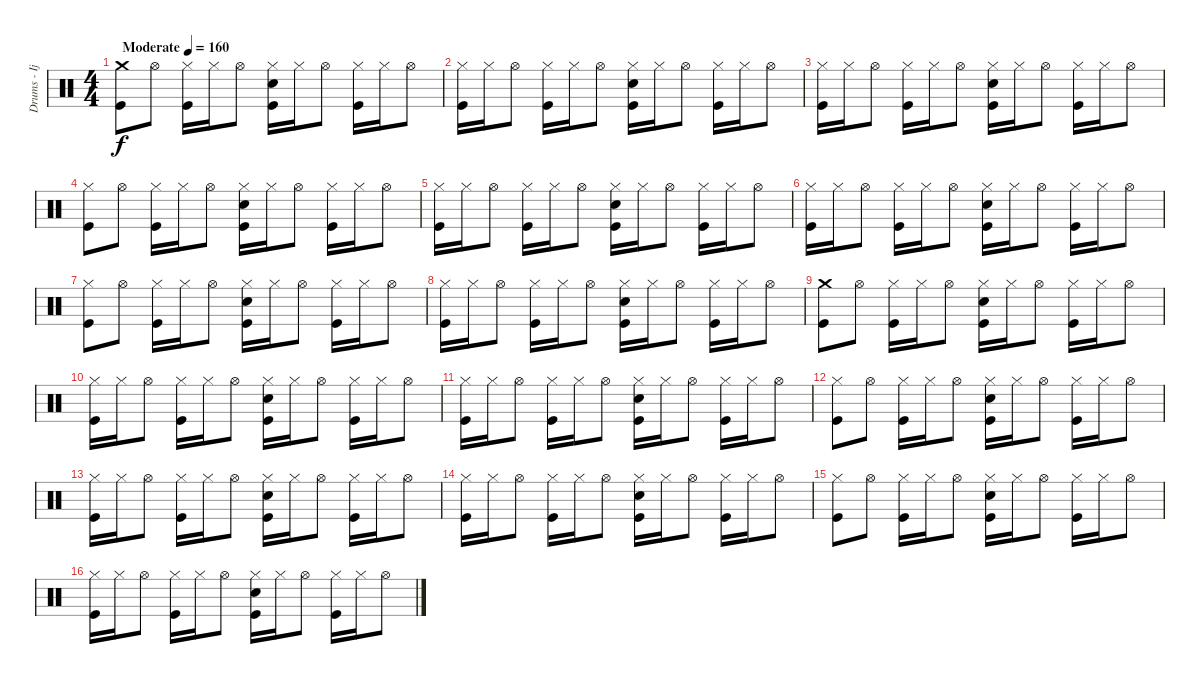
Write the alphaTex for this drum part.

\track ("Drums - Ijichi" "Drums - Ij") {instrument percussion}
\staff {score}
\articulation defaults
\ts (4 4)
\tempo (160 "Moderate")
\clef neutral
\ks c
("Crash medium (hit)" "Kick (hit)").8{dy f} "Hi-Hat (open)".8 ("Hi-Hat (closed)" "Kick (hit)").16 "Hi-Hat (closed)".16 "Hi-Hat (open)".8 ("Hi-Hat (closed)" "Electric Snare (hit)" "Kick (hit)").16 "Hi-Hat (closed)".16 "Hi-Hat (open)".8 ("Hi-Hat (closed)" "Kick (hit)").16 "Hi-Hat (closed)".16 "Hi-Hat (open)".8 |
("Hi-Hat (closed)" "Kick (hit)").16 "Hi-Hat (closed)".16 "Hi-Hat (open)".8 ("Hi-Hat (closed)" "Kick (hit)").16 "Hi-Hat (closed)".16 "Hi-Hat (open)".8 ("Hi-Hat (closed)" "Electric Snare (hit)" "Kick (hit)").16 "Hi-Hat (closed)".16 "Hi-Hat (open)".8 ("Hi-Hat (closed)" "Kick (hit)").16 "Hi-Hat (closed)".16 "Hi-Hat (open)".8 |
("Hi-Hat (closed)" "Kick (hit)").16 "Hi-Hat (closed)".16 "Hi-Hat (open)".8 ("Hi-Hat (closed)" "Kick (hit)").16 "Hi-Hat (closed)".16 "Hi-Hat (open)".8 ("Hi-Hat (closed)" "Electric Snare (hit)" "Kick (hit)").16 "Hi-Hat (closed)".16 "Hi-Hat (open)".8 ("Hi-Hat (closed)" "Kick (hit)").16 "Hi-Hat (closed)".16 "Hi-Hat (open)".8 |
("Hi-Hat (closed)" "Kick (hit)").8 "Hi-Hat (open)".8 ("Hi-Hat (closed)" "Kick (hit)").16 "Hi-Hat (closed)".16 "Hi-Hat (open)".8 ("Hi-Hat (closed)" "Electric Snare (hit)" "Kick (hit)").16 "Hi-Hat (closed)".16 "Hi-Hat (open)".8 ("Hi-Hat (closed)" "Kick (hit)").16 "Hi-Hat (closed)".16 "Hi-Hat (open)".8 |
("Hi-Hat (closed)" "Kick (hit)").16 "Hi-Hat (closed)".16 "Hi-Hat (open)".8 ("Hi-Hat (closed)" "Kick (hit)").16 "Hi-Hat (closed)".16 "Hi-Hat (open)".8 ("Hi-Hat (closed)" "Electric Snare (hit)" "Kick (hit)").16 "Hi-Hat (closed)".16 "Hi-Hat (open)".8 ("Hi-Hat (closed)" "Kick (hit)").16 "Hi-Hat (closed)".16 "Hi-Hat (open)".8 |
("Hi-Hat (closed)" "Kick (hit)").16 "Hi-Hat (closed)".16 "Hi-Hat (open)".8 ("Hi-Hat (closed)" "Kick (hit)").16 "Hi-Hat (closed)".16 "Hi-Hat (open)".8 ("Hi-Hat (closed)" "Electric Snare (hit)" "Kick (hit)").16 "Hi-Hat (closed)".16 "Hi-Hat (open)".8 ("Hi-Hat (closed)" "Kick (hit)").16 "Hi-Hat (closed)".16 "Hi-Hat (open)".8 |
("Hi-Hat (closed)" "Kick (hit)").8 "Hi-Hat (open)".8 ("Hi-Hat (closed)" "Kick (hit)").16 "Hi-Hat (closed)".16 "Hi-Hat (open)".8 ("Hi-Hat (closed)" "Electric Snare (hit)" "Kick (hit)").16 "Hi-Hat (closed)".16 "Hi-Hat (open)".8 ("Hi-Hat (closed)" "Kick (hit)").16 "Hi-Hat (closed)".16 "Hi-Hat (open)".8 |
("Hi-Hat (closed)" "Kick (hit)").16 "Hi-Hat (closed)".16 "Hi-Hat (open)".8 ("Hi-Hat (closed)" "Kick (hit)").16 "Hi-Hat (closed)".16 "Hi-Hat (open)".8 ("Hi-Hat (closed)" "Electric Snare (hit)" "Kick (hit)").16 "Hi-Hat (closed)".16 "Hi-Hat (open)".8 ("Hi-Hat (closed)" "Kick (hit)").16 "Hi-Hat (closed)".16 "Hi-Hat (open)".8 |
("Crash medium (hit)" "Kick (hit)").8 "Hi-Hat (open)".8 ("Hi-Hat (closed)" "Kick (hit)").16 "Hi-Hat (closed)".16 "Hi-Hat (open)".8 ("Hi-Hat (closed)" "Electric Snare (hit)" "Kick (hit)").16 "Hi-Hat (closed)".16 "Hi-Hat (open)".8 ("Hi-Hat (closed)" "Kick (hit)").16 "Hi-Hat (closed)".16 "Hi-Hat (open)".8 |
("Hi-Hat (closed)" "Kick (hit)").16 "Hi-Hat (closed)".16 "Hi-Hat (open)".8 ("Hi-Hat (closed)" "Kick (hit)").16 "Hi-Hat (closed)".16 "Hi-Hat (open)".8 ("Hi-Hat (closed)" "Electric Snare (hit)" "Kick (hit)").16 "Hi-Hat (closed)".16 "Hi-Hat (open)".8 ("Hi-Hat (closed)" "Kick (hit)").16 "Hi-Hat (closed)".16 "Hi-Hat (open)".8 |
("Hi-Hat (closed)" "Kick (hit)").16 "Hi-Hat (closed)".16 "Hi-Hat (open)".8 ("Hi-Hat (closed)" "Kick (hit)").16 "Hi-Hat (closed)".16 "Hi-Hat (open)".8 ("Hi-Hat (closed)" "Electric Snare (hit)" "Kick (hit)").16 "Hi-Hat (closed)".16 "Hi-Hat (open)".8 ("Hi-Hat (closed)" "Kick (hit)").16 "Hi-Hat (closed)".16 "Hi-Hat (open)".8 |
("Hi-Hat (closed)" "Kick (hit)").8 "Hi-Hat (open)".8 ("Hi-Hat (closed)" "Kick (hit)").16 "Hi-Hat (closed)".16 "Hi-Hat (open)".8 ("Hi-Hat (closed)" "Electric Snare (hit)" "Kick (hit)").16 "Hi-Hat (closed)".16 "Hi-Hat (open)".8 ("Hi-Hat (closed)" "Kick (hit)").16 "Hi-Hat (closed)".16 "Hi-Hat (open)".8 |
("Hi-Hat (closed)" "Kick (hit)").16 "Hi-Hat (closed)".16 "Hi-Hat (open)".8 ("Hi-Hat (closed)" "Kick (hit)").16 "Hi-Hat (closed)".16 "Hi-Hat (open)".8 ("Hi-Hat (closed)" "Electric Snare (hit)" "Kick (hit)").16 "Hi-Hat (closed)".16 "Hi-Hat (open)".8 ("Hi-Hat (closed)" "Kick (hit)").16 "Hi-Hat (closed)".16 "Hi-Hat (open)".8 |
("Hi-Hat (closed)" "Kick (hit)").16 "Hi-Hat (closed)".16 "Hi-Hat (open)".8 ("Hi-Hat (closed)" "Kick (hit)").16 "Hi-Hat (closed)".16 "Hi-Hat (open)".8 ("Hi-Hat (closed)" "Electric Snare (hit)" "Kick (hit)").16 "Hi-Hat (closed)".16 "Hi-Hat (open)".8 ("Hi-Hat (closed)" "Kick (hit)").16 "Hi-Hat (closed)".16 "Hi-Hat (open)".8 |
("Hi-Hat (closed)" "Kick (hit)").8 "Hi-Hat (open)".8 ("Hi-Hat (closed)" "Kick (hit)").16 "Hi-Hat (closed)".16 "Hi-Hat (open)".8 ("Hi-Hat (closed)" "Electric Snare (hit)" "Kick (hit)").16 "Hi-Hat (closed)".16 "Hi-Hat (open)".8 ("Hi-Hat (closed)" "Kick (hit)").16 "Hi-Hat (closed)".16 "Hi-Hat (open)".8 |
("Hi-Hat (closed)" "Kick (hit)").16 "Hi-Hat (closed)".16 "Hi-Hat (open)".8 ("Hi-Hat (closed)" "Kick (hit)").16 "Hi-Hat (closed)".16 "Hi-Hat (open)".8 ("Hi-Hat (closed)" "Electric Snare (hit)" "Kick (hit)").16 "Hi-Hat (closed)".16 "Hi-Hat (open)".8 ("Hi-Hat (closed)" "Kick (hit)").16 "Hi-Hat (closed)".16 "Hi-Hat (open)".8
